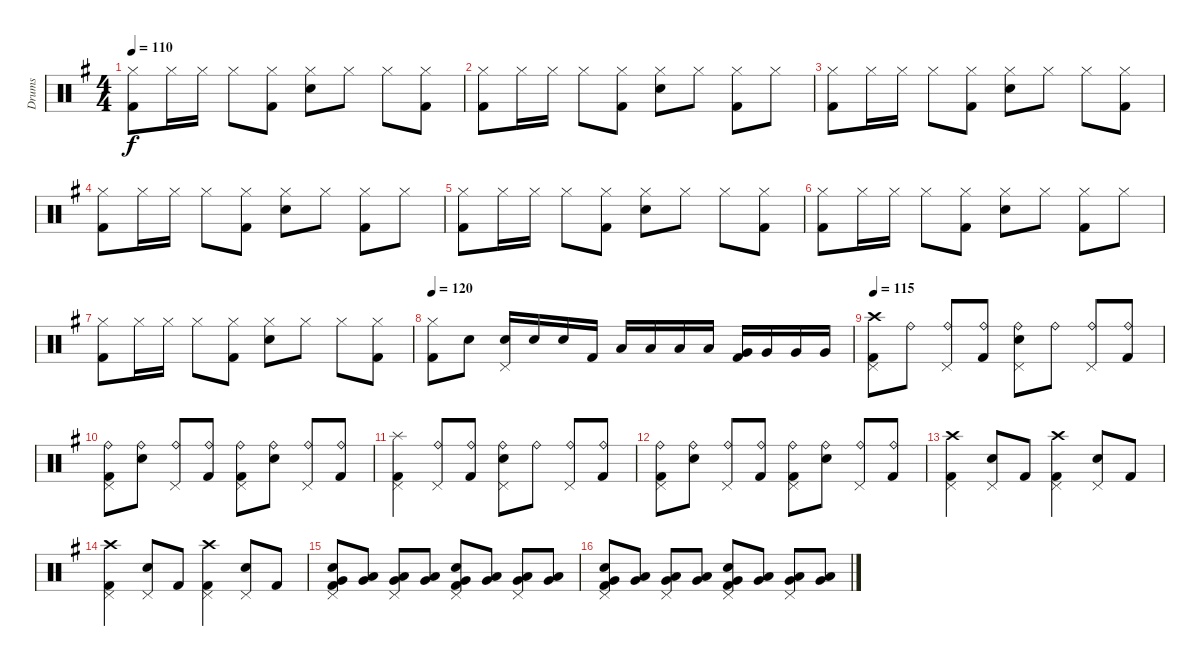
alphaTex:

\track ("Drums" "Drums") {instrument percussion}
\staff {score}
\articulation defaults
\ts (4 4)
\tempo 110
\clef neutral
\ks eminor
("Hi-Hat (closed)" "Kick (hit) 2").8{dy f} "Hi-Hat (closed)".16 "Hi-Hat (closed)".16 "Hi-Hat (closed)".8 ("Hi-Hat (closed)" "Kick (hit) 2").8 ("Hi-Hat (closed)" "Electric Snare (hit)").8 "Hi-Hat (closed)".8 "Hi-Hat (closed)".8 ("Hi-Hat (closed)" "Kick (hit) 2").8 |
("Hi-Hat (closed)" "Kick (hit) 2").8 "Hi-Hat (closed)".16 "Hi-Hat (closed)".16 "Hi-Hat (closed)".8 ("Hi-Hat (closed)" "Kick (hit) 2").8 ("Hi-Hat (closed)" "Electric Snare (hit)").8 "Hi-Hat (closed)".8 ("Hi-Hat (closed)" "Kick (hit) 2").8 "Hi-Hat (closed)".8 |
("Hi-Hat (closed)" "Kick (hit) 2").8 "Hi-Hat (closed)".16 "Hi-Hat (closed)".16 "Hi-Hat (closed)".8 ("Hi-Hat (closed)" "Kick (hit) 2").8 ("Hi-Hat (closed)" "Electric Snare (hit)").8 "Hi-Hat (closed)".8 "Hi-Hat (closed)".8 ("Hi-Hat (closed)" "Kick (hit) 2").8 |
("Hi-Hat (closed)" "Kick (hit) 2").8 "Hi-Hat (closed)".16 "Hi-Hat (closed)".16 "Hi-Hat (closed)".8 ("Hi-Hat (closed)" "Kick (hit) 2").8 ("Hi-Hat (closed)" "Electric Snare (hit)").8 "Hi-Hat (closed)".8 ("Hi-Hat (closed)" "Kick (hit) 2").8 "Hi-Hat (closed)".8 |
("Hi-Hat (closed)" "Kick (hit) 2").8 "Hi-Hat (closed)".16 "Hi-Hat (closed)".16 "Hi-Hat (closed)".8 ("Hi-Hat (closed)" "Kick (hit) 2").8 ("Hi-Hat (closed)" "Electric Snare (hit)").8 "Hi-Hat (closed)".8 "Hi-Hat (closed)".8 ("Hi-Hat (closed)" "Kick (hit) 2").8 |
("Hi-Hat (closed)" "Kick (hit) 2").8 "Hi-Hat (closed)".16 "Hi-Hat (closed)".16 "Hi-Hat (closed)".8 ("Hi-Hat (closed)" "Kick (hit) 2").8 ("Hi-Hat (closed)" "Electric Snare (hit)").8 "Hi-Hat (closed)".8 ("Hi-Hat (closed)" "Kick (hit) 2").8 "Hi-Hat (closed)".8 |
("Hi-Hat (closed)" "Kick (hit) 2").8 "Hi-Hat (closed)".16 "Hi-Hat (closed)".16 "Hi-Hat (closed)".8 ("Hi-Hat (closed)" "Kick (hit) 2").8 ("Hi-Hat (closed)" "Electric Snare (hit)").8 "Hi-Hat (closed)".8 "Hi-Hat (closed)".8 ("Hi-Hat (closed)" "Kick (hit) 2").8 |
\tempo 120
("Hi-Hat (closed)" "Kick (hit) 2").8 "Electric Snare (hit)".8 ("Electric Snare (hit)" "Pedal Hi-Hat (hit)").16 "Electric Snare (hit)".16 "Electric Snare (hit)".16 "Kick (hit) 2".16 "Low Tom (hit)".16 "Low Tom (hit)".16 "Low Tom (hit)".16 "Low Tom (hit)".16 ("Very Low Tom (hit)" "Kick (hit) 2").16 "Very Low Tom (hit)".16 "Very Low Tom (hit)".16 "Very Low Tom (hit)".16 |
\tempo 115
("Crash high (hit)" "Pedal Hi-Hat (hit)" "Kick (hit) 2").8 "Ride (bell)".8 ("Ride (bell)" "Pedal Hi-Hat (hit)").8 ("Ride (bell)" "Kick (hit) 2").8 ("Ride (bell)" "Electric Snare (hit)" "Pedal Hi-Hat (hit)").8 "Ride (bell)".8 ("Ride (bell)" "Pedal Hi-Hat (hit)").8 ("Ride (bell)" "Kick (hit) 2").8 |
("Ride (bell)" "Pedal Hi-Hat (hit)" "Kick (hit) 2").8 ("Ride (bell)" "Electric Snare (hit)").8 ("Ride (bell)" "Pedal Hi-Hat (hit)").8 ("Ride (bell)" "Kick (hit) 2").8 ("Ride (bell)" "Pedal Hi-Hat (hit)" "Kick (hit) 2").8 ("Ride (bell)" "Electric Snare (hit)").8 ("Ride (bell)" "Pedal Hi-Hat (hit)").8 ("Ride (bell)" "Kick (hit) 2").8 |
("Splash (hit)" "Pedal Hi-Hat (hit)" "Kick (hit) 2").4 ("Ride (bell)" "Pedal Hi-Hat (hit)").8 ("Ride (bell)" "Kick (hit) 2").8 ("Ride (bell)" "Electric Snare (hit)" "Pedal Hi-Hat (hit)").8 "Ride (bell)".8 ("Ride (bell)" "Pedal Hi-Hat (hit)").8 ("Ride (bell)" "Kick (hit) 2").8 |
("Ride (bell)" "Pedal Hi-Hat (hit)" "Kick (hit) 2").8 ("Ride (bell)" "Electric Snare (hit)").8 ("Ride (bell)" "Pedal Hi-Hat (hit)").8 ("Ride (bell)" "Kick (hit) 2").8 ("Ride (bell)" "Pedal Hi-Hat (hit)" "Kick (hit) 2").8 ("Ride (bell)" "Electric Snare (hit)").8 ("Ride (bell)" "Pedal Hi-Hat (hit)").8 ("Ride (bell)" "Kick (hit) 2").8 |
("Crash high (hit)" "Pedal Hi-Hat (hit)" "Kick (hit) 2").4 ("Electric Snare (hit)" "Pedal Hi-Hat (hit)").8 "Kick (hit) 2".8 ("Crash high (hit)" "Pedal Hi-Hat (hit)" "Kick (hit) 2").4 ("Electric Snare (hit)" "Pedal Hi-Hat (hit)").8 "Kick (hit) 2".8 |
("Crash high (hit)" "Pedal Hi-Hat (hit)" "Kick (hit) 2").4 ("Electric Snare (hit)" "Pedal Hi-Hat (hit)").8 "Kick (hit) 2".8 ("Crash high (hit)" "Pedal Hi-Hat (hit)" "Kick (hit) 2").4 ("Electric Snare (hit)" "Pedal Hi-Hat (hit)").8 "Kick (hit) 2".8 |
("Pedal Hi-Hat (hit)" "Electric Snare (hit)" "Very Low Tom (hit)" "Kick (hit) 2").8 ("Low Tom (hit)" "Very Low Tom (hit)").8 ("Pedal Hi-Hat (hit)" "Low Tom (hit)" "Very Low Tom (hit)").8 ("Low Tom (hit)" "Very Low Tom (hit)").8 ("Pedal Hi-Hat (hit)" "Electric Snare (hit)" "Very Low Tom (hit)" "Kick (hit) 2").8 ("Low Tom (hit)" "Very Low Tom (hit)").8 ("Pedal Hi-Hat (hit)" "Low Tom (hit)" "Very Low Tom (hit)").8 ("Low Tom (hit)" "Very Low Tom (hit)").8 |
("Pedal Hi-Hat (hit)" "Electric Snare (hit)" "Very Low Tom (hit)" "Kick (hit) 2").8 ("Low Tom (hit)" "Very Low Tom (hit)").8 ("Pedal Hi-Hat (hit)" "Low Tom (hit)" "Very Low Tom (hit)").8 ("Low Tom (hit)" "Very Low Tom (hit)").8 ("Pedal Hi-Hat (hit)" "Electric Snare (hit)" "Very Low Tom (hit)" "Kick (hit) 2").8 ("Low Tom (hit)" "Very Low Tom (hit)").8 ("Pedal Hi-Hat (hit)" "Low Tom (hit)" "Very Low Tom (hit)").8 ("Low Tom (hit)" "Very Low Tom (hit)").8
